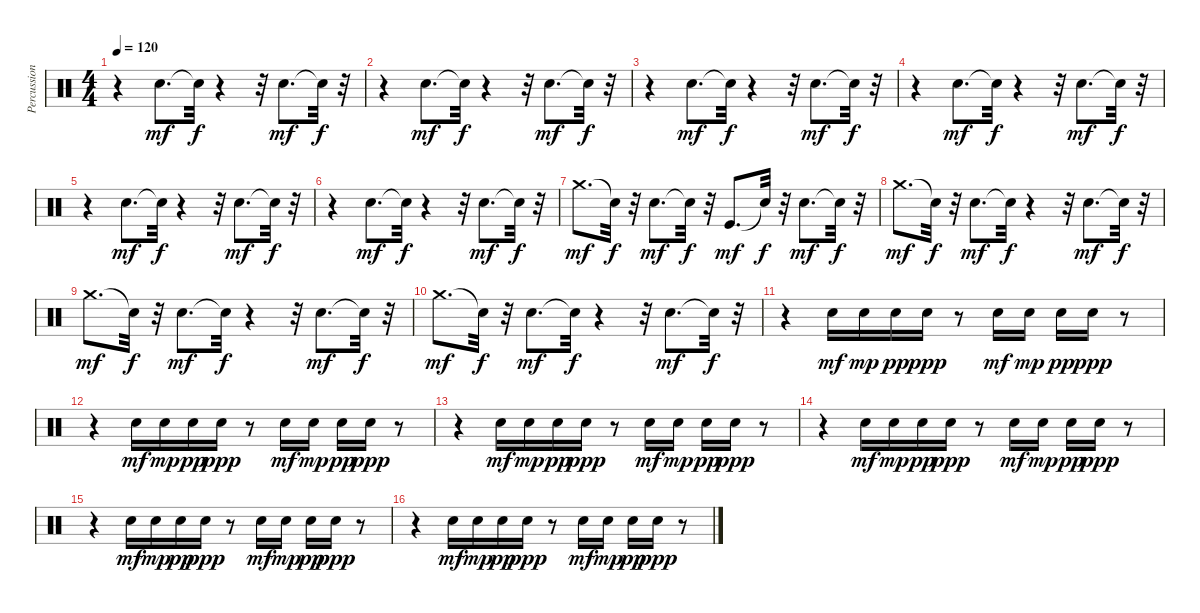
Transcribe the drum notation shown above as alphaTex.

\track ("Percussions" "Percussion") {instrument percussion}
\staff {score}
\articulation defaults
\ts (4 4)
\tempo 120
\clef neutral
\ks c
r.4{dy f} "Electric Snare (hit)".8{d dy mf} "Snare (hit)"{t}.32{dy f} r.4 r.32 "Snare (hit) 2".8{d dy mf} "Snare (hit)"{t}.32{dy f} r.32 |
r.4 "Electric Snare (hit)".8{d dy mf} "Snare (hit)"{t}.32{dy f} r.4 r.32 "Snare (hit) 2".8{d dy mf} "Snare (hit)"{t}.32{dy f} r.32 |
r.4 "Electric Snare (hit)".8{d dy mf} "Snare (hit)"{t}.32{dy f} r.4 r.32 "Snare (hit) 2".8{d dy mf} "Snare (hit)"{t}.32{dy f} r.32 |
r.4 "Electric Snare (hit)".8{d dy mf} "Snare (hit)"{t}.32{dy f} r.4 r.32 "Snare (hit) 2".8{d dy mf} "Snare (hit)"{t}.32{dy f} r.32 |
r.4 "Electric Snare (hit)".8{d dy mf} "Snare (hit)"{t}.32{dy f} r.4 r.32 "Snare (hit) 2".8{d dy mf} "Snare (hit)"{t}.32{dy f} r.32 |
r.4 "Electric Snare (hit)".8{d dy mf} "Snare (hit)"{t}.32{dy f} r.4 r.32 "Snare (hit) 2".8{d dy mf} "Snare (hit)"{t}.32{dy f} r.32 |
"Crash medium (hit)".8{d dy mf} "Snare (hit)"{t}.32{dy f} r.32 "Electric Snare (hit)".8{d dy mf} "Snare (hit)"{t}.32{dy f} r.32 "Kick (hit)".8{d dy mf} "Snare (hit)"{t}.32{dy f} r.32 "Electric Snare (hit)".8{d dy mf} "Snare (hit)"{t}.32{dy f} r.32 |
"Crash medium (hit)".8{d dy mf} "Snare (hit)"{t}.32{dy f} r.32 "Electric Snare (hit)".8{d dy mf} "Snare (hit)"{t}.32{dy f} r.4 r.32 "Electric Snare (hit)".8{d dy mf} "Snare (hit)"{t}.32{dy f} r.32 |
"Crash medium (hit)".8{d dy mf} "Snare (hit)"{t}.32{dy f} r.32 "Electric Snare (hit)".8{d dy mf} "Snare (hit)"{t}.32{dy f} r.4 r.32 "Electric Snare (hit)".8{d dy mf} "Snare (hit)"{t}.32{dy f} r.32 |
"Crash medium (hit)".8{d dy mf} "Snare (hit)"{t}.32{dy f} r.32 "Electric Snare (hit)".8{d dy mf} "Snare (hit)"{t}.32{dy f} r.4 r.32 "Electric Snare (hit)".8{d dy mf} "Snare (hit)"{t}.32{dy f} r.32 |
r.4 "Snare (hit) 2".16{dy mf} "Snare (hit) 2".16{dy mp} "Snare (hit) 2".16{dy pp} "Snare (hit) 2".16{dy ppp} r.8 "Snare (hit) 2".16{dy mf} "Snare (hit) 2".16{dy mp} "Snare (hit) 2".16{dy pp} "Snare (hit) 2".16{dy ppp} r.8 |
r.4 "Snare (hit) 2".16{dy mf} "Snare (hit) 2".16{dy mp} "Snare (hit) 2".16{dy pp} "Snare (hit) 2".16{dy ppp} r.8 "Snare (hit) 2".16{dy mf} "Snare (hit) 2".16{dy mp} "Snare (hit) 2".16{dy pp} "Snare (hit) 2".16{dy ppp} r.8 |
r.4 "Snare (hit) 2".16{dy mf} "Snare (hit) 2".16{dy mp} "Snare (hit) 2".16{dy pp} "Snare (hit) 2".16{dy ppp} r.8 "Snare (hit) 2".16{dy mf} "Snare (hit) 2".16{dy mp} "Snare (hit) 2".16{dy pp} "Snare (hit) 2".16{dy ppp} r.8 |
r.4 "Snare (hit) 2".16{dy mf} "Snare (hit) 2".16{dy mp} "Snare (hit) 2".16{dy pp} "Snare (hit) 2".16{dy ppp} r.8 "Snare (hit) 2".16{dy mf} "Snare (hit) 2".16{dy mp} "Snare (hit) 2".16{dy pp} "Snare (hit) 2".16{dy ppp} r.8 |
r.4 "Snare (hit) 2".16{dy mf} "Snare (hit) 2".16{dy mp} "Snare (hit) 2".16{dy pp} "Snare (hit) 2".16{dy ppp} r.8 "Snare (hit) 2".16{dy mf} "Snare (hit) 2".16{dy mp} "Snare (hit) 2".16{dy pp} "Snare (hit) 2".16{dy ppp} r.8 |
r.4 "Snare (hit) 2".16{dy mf} "Snare (hit) 2".16{dy mp} "Snare (hit) 2".16{dy pp} "Snare (hit) 2".16{dy ppp} r.8 "Snare (hit) 2".16{dy mf} "Snare (hit) 2".16{dy mp} "Snare (hit) 2".16{dy pp} "Snare (hit) 2".16{dy ppp} r.8
